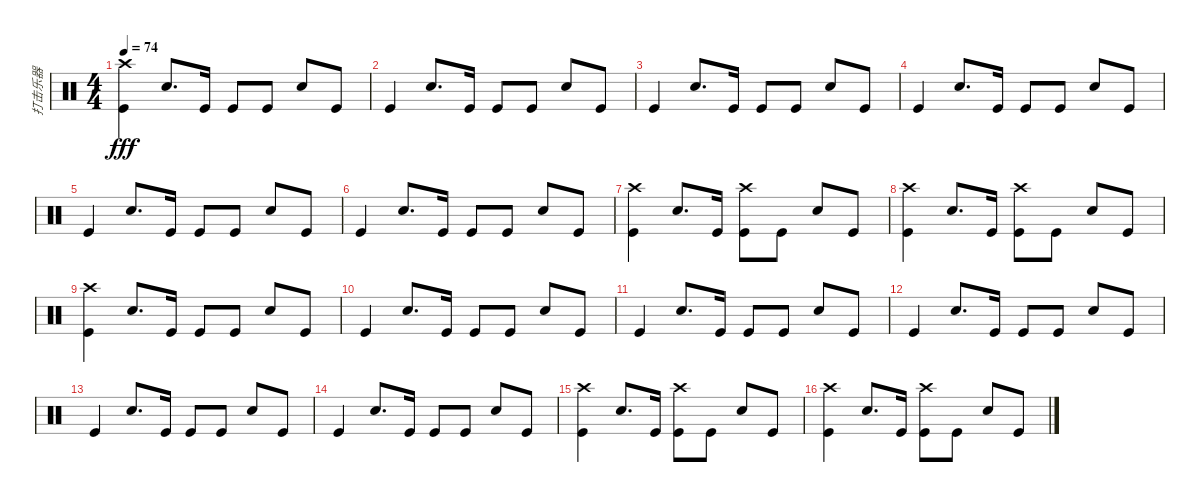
\track ("打击乐器" "打击乐器") {instrument percussion}
\staff {score}
\articulation defaults
\ts (4 4)
\tempo 74
\clef neutral
\ks c
("Crash high (hit)" "Kick (hit)").4{dy fff} "Snare (hit) 2".8{d} "Kick (hit)".16 "Kick (hit)".8 "Kick (hit)".8 "Snare (hit) 2".8 "Kick (hit)".8 |
"Kick (hit)".4 "Snare (hit) 2".8{d} "Kick (hit)".16 "Kick (hit)".8 "Kick (hit)".8 "Snare (hit) 2".8 "Kick (hit)".8 |
"Kick (hit)".4 "Snare (hit) 2".8{d} "Kick (hit)".16 "Kick (hit)".8 "Kick (hit)".8 "Snare (hit) 2".8 "Kick (hit)".8 |
"Kick (hit)".4 "Snare (hit) 2".8{d} "Kick (hit)".16 "Kick (hit)".8 "Kick (hit)".8 "Snare (hit) 2".8 "Kick (hit)".8 |
"Kick (hit)".4 "Snare (hit) 2".8{d} "Kick (hit)".16 "Kick (hit)".8 "Kick (hit)".8 "Snare (hit) 2".8 "Kick (hit)".8 |
"Kick (hit)".4 "Snare (hit) 2".8{d} "Kick (hit)".16 "Kick (hit)".8 "Kick (hit)".8 "Snare (hit) 2".8 "Kick (hit)".8 |
("Crash high (hit)" "Kick (hit)").4 "Snare (hit) 2".8{d} "Kick (hit)".16 ("Crash high (hit)" "Kick (hit)").8 "Kick (hit)".8 "Snare (hit) 2".8 "Kick (hit)".8 |
("Crash high (hit)" "Kick (hit)").4 "Snare (hit) 2".8{d} "Kick (hit)".16 ("Crash high (hit)" "Kick (hit)").8 "Kick (hit)".8 "Snare (hit) 2".8 "Kick (hit)".8 |
("Crash high (hit)" "Kick (hit)").4 "Snare (hit) 2".8{d} "Kick (hit)".16 "Kick (hit)".8 "Kick (hit)".8 "Snare (hit) 2".8 "Kick (hit)".8 |
"Kick (hit)".4 "Snare (hit) 2".8{d} "Kick (hit)".16 "Kick (hit)".8 "Kick (hit)".8 "Snare (hit) 2".8 "Kick (hit)".8 |
"Kick (hit)".4 "Snare (hit) 2".8{d} "Kick (hit)".16 "Kick (hit)".8 "Kick (hit)".8 "Snare (hit) 2".8 "Kick (hit)".8 |
"Kick (hit)".4 "Snare (hit) 2".8{d} "Kick (hit)".16 "Kick (hit)".8 "Kick (hit)".8 "Snare (hit) 2".8 "Kick (hit)".8 |
"Kick (hit)".4 "Snare (hit) 2".8{d} "Kick (hit)".16 "Kick (hit)".8 "Kick (hit)".8 "Snare (hit) 2".8 "Kick (hit)".8 |
"Kick (hit)".4 "Snare (hit) 2".8{d} "Kick (hit)".16 "Kick (hit)".8 "Kick (hit)".8 "Snare (hit) 2".8 "Kick (hit)".8 |
("Crash high (hit)" "Kick (hit)").4 "Snare (hit) 2".8{d} "Kick (hit)".16 ("Crash high (hit)" "Kick (hit)").8 "Kick (hit)".8 "Snare (hit) 2".8 "Kick (hit)".8 |
("Crash high (hit)" "Kick (hit)").4 "Snare (hit) 2".8{d} "Kick (hit)".16 ("Crash high (hit)" "Kick (hit)").8 "Kick (hit)".8 "Snare (hit) 2".8 "Kick (hit)".8
